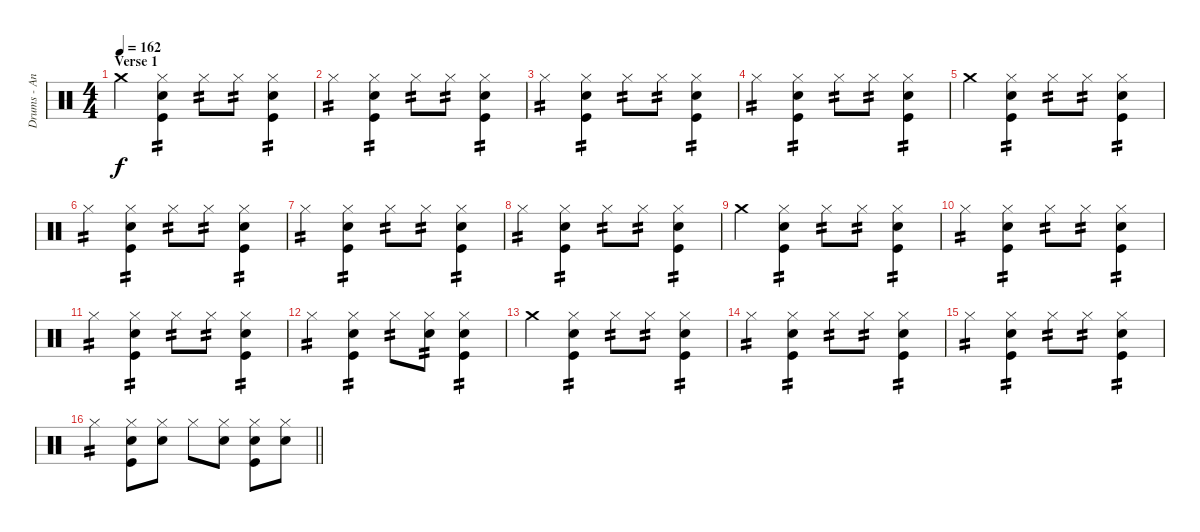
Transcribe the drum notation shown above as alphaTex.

\track ("Drums - Andriushkin" "Drums - An") {instrument percussion}
\staff {score}
\articulation defaults
\ts (4 4)
\section ("" "Verse 1")
\tempo 162
\clef neutral
\ks c "Crash medium (hit)".4{dy f}
("Hi-Hat (closed)" "Electric Snare (hit)" "Kick (hit)").4{tp 2} "Hi-Hat (closed)".8{tp 2} "Hi-Hat (closed)".8{tp 2} ("Hi-Hat (closed)" "Electric Snare (hit)" "Kick (hit)").4{tp 2} |
"Hi-Hat (closed)".4{tp 2} ("Hi-Hat (closed)" "Electric Snare (hit)" "Kick (hit)").4{tp 2} "Hi-Hat (closed)".8{tp 2} "Hi-Hat (closed)".8{tp 2} ("Hi-Hat (closed)" "Electric Snare (hit)" "Kick (hit)").4{tp 2} |
"Hi-Hat (closed)".4{tp 2} ("Hi-Hat (closed)" "Electric Snare (hit)" "Kick (hit)").4{tp 2} "Hi-Hat (closed)".8{tp 2} "Hi-Hat (closed)".8{tp 2} ("Hi-Hat (closed)" "Electric Snare (hit)" "Kick (hit)").4{tp 2} |
"Hi-Hat (closed)".4{tp 2} ("Hi-Hat (closed)" "Electric Snare (hit)" "Kick (hit)").4{tp 2} "Hi-Hat (closed)".8{tp 2} "Hi-Hat (closed)".8{tp 2} ("Hi-Hat (closed)" "Electric Snare (hit)" "Kick (hit)").4{tp 2} |
"Crash medium (hit)".4 ("Hi-Hat (closed)" "Electric Snare (hit)" "Kick (hit)").4{tp 2} "Hi-Hat (closed)".8{tp 2} "Hi-Hat (closed)".8{tp 2} ("Hi-Hat (closed)" "Electric Snare (hit)" "Kick (hit)").4{tp 2} |
"Hi-Hat (closed)".4{tp 2} ("Hi-Hat (closed)" "Electric Snare (hit)" "Kick (hit)").4{tp 2} "Hi-Hat (closed)".8{tp 2} "Hi-Hat (closed)".8{tp 2} ("Hi-Hat (closed)" "Electric Snare (hit)" "Kick (hit)").4{tp 2} |
"Hi-Hat (closed)".4{tp 2} ("Hi-Hat (closed)" "Electric Snare (hit)" "Kick (hit)").4{tp 2} "Hi-Hat (closed)".8{tp 2} "Hi-Hat (closed)".8{tp 2} ("Hi-Hat (closed)" "Electric Snare (hit)" "Kick (hit)").4{tp 2} |
"Hi-Hat (closed)".4{tp 2} ("Hi-Hat (closed)" "Electric Snare (hit)" "Kick (hit)").4{tp 2} "Hi-Hat (closed)".8{tp 2} "Hi-Hat (closed)".8{tp 2} ("Hi-Hat (closed)" "Electric Snare (hit)" "Kick (hit)").4{tp 2} |
"Crash medium (hit)".4 ("Hi-Hat (closed)" "Electric Snare (hit)" "Kick (hit)").4{tp 2} "Hi-Hat (closed)".8{tp 2} "Hi-Hat (closed)".8{tp 2} ("Hi-Hat (closed)" "Electric Snare (hit)" "Kick (hit)").4{tp 2} |
"Hi-Hat (closed)".4{tp 2} ("Hi-Hat (closed)" "Electric Snare (hit)" "Kick (hit)").4{tp 2} "Hi-Hat (closed)".8{tp 2} "Hi-Hat (closed)".8{tp 2} ("Hi-Hat (closed)" "Electric Snare (hit)" "Kick (hit)").4{tp 2} |
"Hi-Hat (closed)".4{tp 2} ("Hi-Hat (closed)" "Electric Snare (hit)" "Kick (hit)").4{tp 2} "Hi-Hat (closed)".8{tp 2} "Hi-Hat (closed)".8{tp 2} ("Hi-Hat (closed)" "Electric Snare (hit)" "Kick (hit)").4{tp 2} |
"Hi-Hat (closed)".4{tp 2} ("Hi-Hat (closed)" "Electric Snare (hit)" "Kick (hit)").4{tp 2} "Hi-Hat (closed)".8{tp 2} ("Hi-Hat (closed)" "Electric Snare (hit)").8{tp 2} ("Hi-Hat (closed)" "Electric Snare (hit)" "Kick (hit)").4{tp 2} |
"Crash medium (hit)".4 ("Hi-Hat (closed)" "Electric Snare (hit)" "Kick (hit)").4{tp 2} "Hi-Hat (closed)".8{tp 2} "Hi-Hat (closed)".8{tp 2} ("Hi-Hat (closed)" "Electric Snare (hit)" "Kick (hit)").4{tp 2} |
"Hi-Hat (closed)".4{tp 2} ("Hi-Hat (closed)" "Electric Snare (hit)" "Kick (hit)").4{tp 2} "Hi-Hat (closed)".8{tp 2} "Hi-Hat (closed)".8{tp 2} ("Hi-Hat (closed)" "Electric Snare (hit)" "Kick (hit)").4{tp 2} |
"Hi-Hat (closed)".4{tp 2} ("Hi-Hat (closed)" "Electric Snare (hit)" "Kick (hit)").4{tp 2} "Hi-Hat (closed)".8{tp 2} "Hi-Hat (closed)".8{tp 2} ("Hi-Hat (closed)" "Electric Snare (hit)" "Kick (hit)").4{tp 2} |
\barLineRight lightlight "Hi-Hat (closed)".4{tp 2}
("Hi-Hat (closed)" "Electric Snare (hit)" "Kick (hit)").8 ("Hi-Hat (closed)" "Electric Snare (hit)").8 "Hi-Hat (closed)".8 ("Hi-Hat (closed)" "Electric Snare (hit)").8 ("Hi-Hat (closed)" "Electric Snare (hit)" "Kick (hit)").8 ("Hi-Hat (closed)" "Electric Snare (hit)").8
